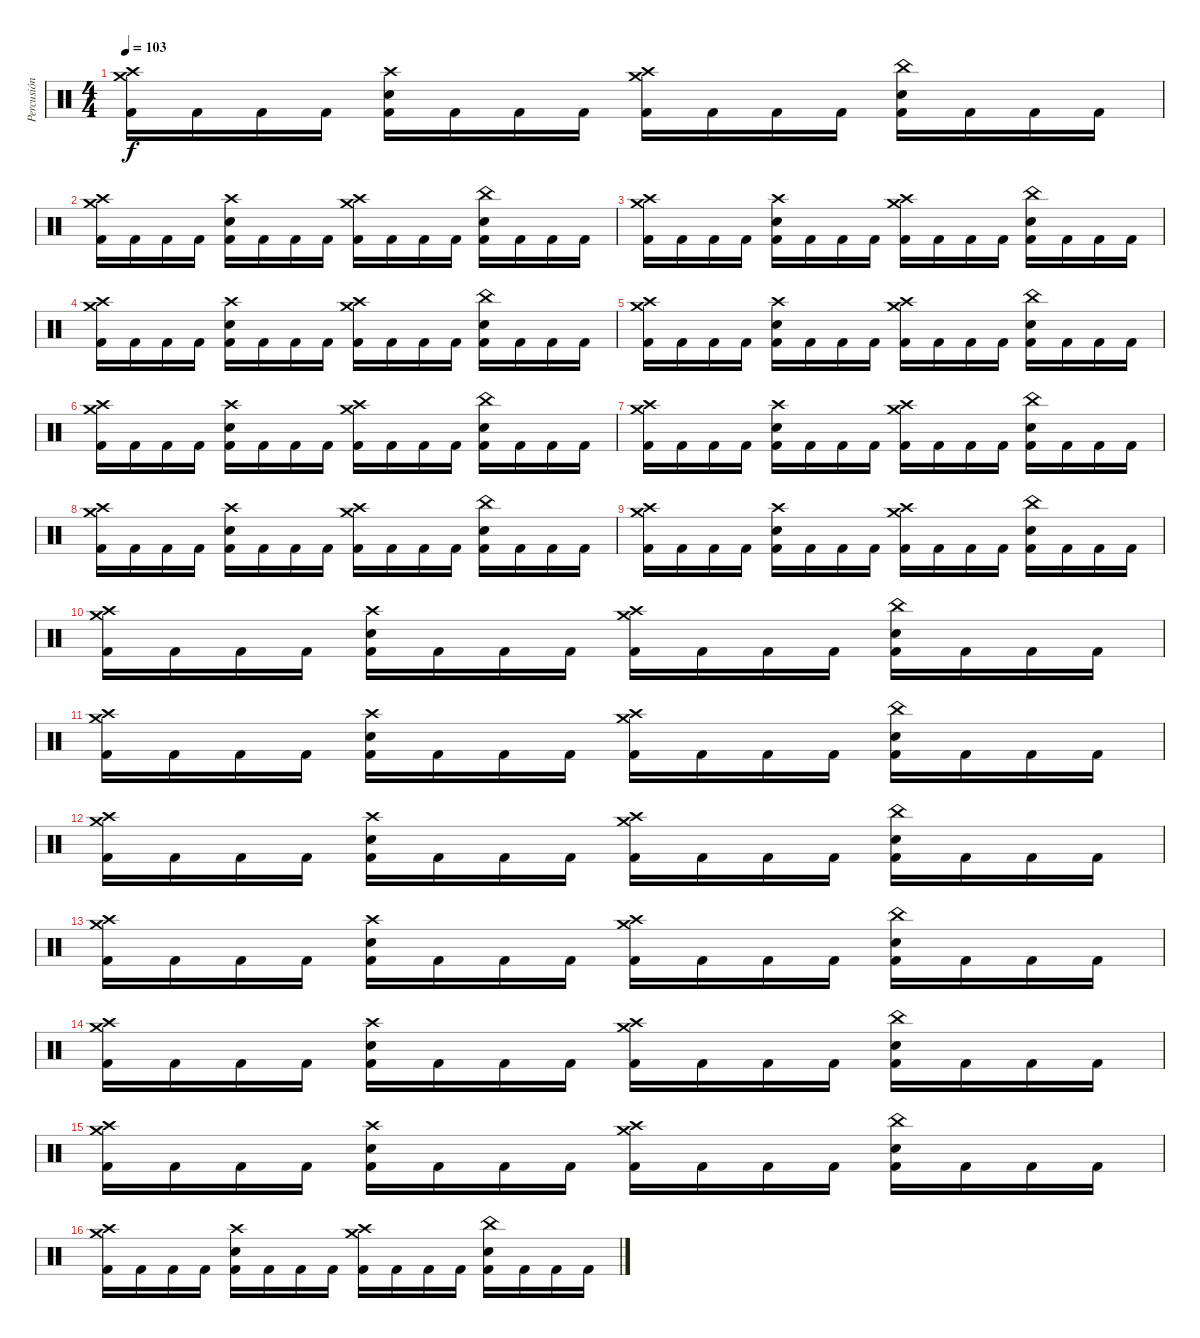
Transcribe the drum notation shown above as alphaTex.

\track ("Percusión" "Percusión") {instrument percussion}
\staff {score}
\articulation defaults
\ts (4 4)
\tempo 103
\clef neutral
\ks c
("Crash high (hit)" "Crash medium (hit)" "Kick (hit) 2").16{dy f} "Kick (hit) 2".16 "Kick (hit) 2".16 "Kick (hit) 2".16 ("Snare (hit) 2" "Crash high (hit)" "Kick (hit) 2").16 "Kick (hit) 2".16 "Kick (hit) 2".16 "Kick (hit) 2".16 ("Crash high (hit)" "Crash medium (hit)" "Kick (hit) 2").16 "Kick (hit) 2".16 "Kick (hit) 2".16 "Kick (hit) 2".16 ("Snare (hit) 2" "China (hit)" "Kick (hit) 2").16 "Kick (hit) 2".16 "Kick (hit) 2".16 "Kick (hit) 2".16 |
("Crash high (hit)" "Crash medium (hit)" "Kick (hit) 2").16 "Kick (hit) 2".16 "Kick (hit) 2".16 "Kick (hit) 2".16 ("Snare (hit) 2" "Crash high (hit)" "Kick (hit) 2").16 "Kick (hit) 2".16 "Kick (hit) 2".16 "Kick (hit) 2".16 ("Crash high (hit)" "Crash medium (hit)" "Kick (hit) 2").16 "Kick (hit) 2".16 "Kick (hit) 2".16 "Kick (hit) 2".16 ("Snare (hit) 2" "China (hit)" "Kick (hit) 2").16 "Kick (hit) 2".16 "Kick (hit) 2".16 "Kick (hit) 2".16 |
("Crash high (hit)" "Crash medium (hit)" "Kick (hit) 2").16 "Kick (hit) 2".16 "Kick (hit) 2".16 "Kick (hit) 2".16 ("Snare (hit) 2" "Crash high (hit)" "Kick (hit) 2").16 "Kick (hit) 2".16 "Kick (hit) 2".16 "Kick (hit) 2".16 ("Crash high (hit)" "Crash medium (hit)" "Kick (hit) 2").16 "Kick (hit) 2".16 "Kick (hit) 2".16 "Kick (hit) 2".16 ("Snare (hit) 2" "China (hit)" "Kick (hit) 2").16 "Kick (hit) 2".16 "Kick (hit) 2".16 "Kick (hit) 2".16 |
("Crash high (hit)" "Crash medium (hit)" "Kick (hit) 2").16{volume 10} "Kick (hit) 2".16 "Kick (hit) 2".16 "Kick (hit) 2".16 ("Snare (hit) 2" "Crash high (hit)" "Kick (hit) 2").16 "Kick (hit) 2".16 "Kick (hit) 2".16 "Kick (hit) 2".16 ("Crash high (hit)" "Crash medium (hit)" "Kick (hit) 2").16 "Kick (hit) 2".16 "Kick (hit) 2".16 "Kick (hit) 2".16 ("Snare (hit) 2" "China (hit)" "Kick (hit) 2").16 "Kick (hit) 2".16 "Kick (hit) 2".16 "Kick (hit) 2".16 |
("Crash high (hit)" "Crash medium (hit)" "Kick (hit) 2").16 "Kick (hit) 2".16 "Kick (hit) 2".16 "Kick (hit) 2".16 ("Snare (hit) 2" "Crash high (hit)" "Kick (hit) 2").16 "Kick (hit) 2".16 "Kick (hit) 2".16 "Kick (hit) 2".16 ("Crash high (hit)" "Crash medium (hit)" "Kick (hit) 2").16 "Kick (hit) 2".16 "Kick (hit) 2".16 "Kick (hit) 2".16 ("Snare (hit) 2" "China (hit)" "Kick (hit) 2").16 "Kick (hit) 2".16 "Kick (hit) 2".16 "Kick (hit) 2".16 |
("Crash high (hit)" "Crash medium (hit)" "Kick (hit) 2").16 "Kick (hit) 2".16 "Kick (hit) 2".16 "Kick (hit) 2".16 ("Snare (hit) 2" "Crash high (hit)" "Kick (hit) 2").16 "Kick (hit) 2".16 "Kick (hit) 2".16 "Kick (hit) 2".16 ("Crash high (hit)" "Crash medium (hit)" "Kick (hit) 2").16 "Kick (hit) 2".16 "Kick (hit) 2".16 "Kick (hit) 2".16 ("Snare (hit) 2" "China (hit)" "Kick (hit) 2").16 "Kick (hit) 2".16 "Kick (hit) 2".16 "Kick (hit) 2".16 |
("Crash high (hit)" "Crash medium (hit)" "Kick (hit) 2").16 "Kick (hit) 2".16 "Kick (hit) 2".16 "Kick (hit) 2".16 ("Snare (hit) 2" "Crash high (hit)" "Kick (hit) 2").16 "Kick (hit) 2".16 "Kick (hit) 2".16 "Kick (hit) 2".16 ("Crash high (hit)" "Crash medium (hit)" "Kick (hit) 2").16 "Kick (hit) 2".16 "Kick (hit) 2".16 "Kick (hit) 2".16 ("Snare (hit) 2" "China (hit)" "Kick (hit) 2").16 "Kick (hit) 2".16 "Kick (hit) 2".16 "Kick (hit) 2".16 |
("Crash high (hit)" "Crash medium (hit)" "Kick (hit) 2").16{volume 8} "Kick (hit) 2".16 "Kick (hit) 2".16 "Kick (hit) 2".16 ("Snare (hit) 2" "Crash high (hit)" "Kick (hit) 2").16 "Kick (hit) 2".16 "Kick (hit) 2".16 "Kick (hit) 2".16 ("Crash high (hit)" "Crash medium (hit)" "Kick (hit) 2").16 "Kick (hit) 2".16 "Kick (hit) 2".16 "Kick (hit) 2".16 ("Snare (hit) 2" "China (hit)" "Kick (hit) 2").16 "Kick (hit) 2".16 "Kick (hit) 2".16 "Kick (hit) 2".16 |
("Crash high (hit)" "Crash medium (hit)" "Kick (hit) 2").16 "Kick (hit) 2".16 "Kick (hit) 2".16 "Kick (hit) 2".16 ("Snare (hit) 2" "Crash high (hit)" "Kick (hit) 2").16 "Kick (hit) 2".16 "Kick (hit) 2".16 "Kick (hit) 2".16 ("Crash high (hit)" "Crash medium (hit)" "Kick (hit) 2").16 "Kick (hit) 2".16 "Kick (hit) 2".16 "Kick (hit) 2".16 ("Snare (hit) 2" "China (hit)" "Kick (hit) 2").16 "Kick (hit) 2".16 "Kick (hit) 2".16 "Kick (hit) 2".16 |
("Crash high (hit)" "Crash medium (hit)" "Kick (hit) 2").16 "Kick (hit) 2".16 "Kick (hit) 2".16 "Kick (hit) 2".16 ("Snare (hit) 2" "Crash high (hit)" "Kick (hit) 2").16 "Kick (hit) 2".16 "Kick (hit) 2".16 "Kick (hit) 2".16 ("Crash high (hit)" "Crash medium (hit)" "Kick (hit) 2").16 "Kick (hit) 2".16 "Kick (hit) 2".16 "Kick (hit) 2".16 ("Snare (hit) 2" "China (hit)" "Kick (hit) 2").16 "Kick (hit) 2".16 "Kick (hit) 2".16 "Kick (hit) 2".16 |
("Crash high (hit)" "Crash medium (hit)" "Kick (hit) 2").16 "Kick (hit) 2".16 "Kick (hit) 2".16 "Kick (hit) 2".16 ("Snare (hit) 2" "Crash high (hit)" "Kick (hit) 2").16 "Kick (hit) 2".16 "Kick (hit) 2".16 "Kick (hit) 2".16 ("Crash high (hit)" "Crash medium (hit)" "Kick (hit) 2").16 "Kick (hit) 2".16 "Kick (hit) 2".16 "Kick (hit) 2".16 ("Snare (hit) 2" "China (hit)" "Kick (hit) 2").16 "Kick (hit) 2".16 "Kick (hit) 2".16 "Kick (hit) 2".16 |
("Crash high (hit)" "Crash medium (hit)" "Kick (hit) 2").16{volume 6} "Kick (hit) 2".16 "Kick (hit) 2".16 "Kick (hit) 2".16 ("Snare (hit) 2" "Crash high (hit)" "Kick (hit) 2").16 "Kick (hit) 2".16 "Kick (hit) 2".16 "Kick (hit) 2".16 ("Crash high (hit)" "Crash medium (hit)" "Kick (hit) 2").16 "Kick (hit) 2".16 "Kick (hit) 2".16 "Kick (hit) 2".16 ("Snare (hit) 2" "China (hit)" "Kick (hit) 2").16 "Kick (hit) 2".16 "Kick (hit) 2".16 "Kick (hit) 2".16 |
("Crash high (hit)" "Crash medium (hit)" "Kick (hit) 2").16 "Kick (hit) 2".16 "Kick (hit) 2".16 "Kick (hit) 2".16 ("Snare (hit) 2" "Crash high (hit)" "Kick (hit) 2").16 "Kick (hit) 2".16 "Kick (hit) 2".16 "Kick (hit) 2".16 ("Crash high (hit)" "Crash medium (hit)" "Kick (hit) 2").16 "Kick (hit) 2".16 "Kick (hit) 2".16 "Kick (hit) 2".16 ("Snare (hit) 2" "China (hit)" "Kick (hit) 2").16 "Kick (hit) 2".16 "Kick (hit) 2".16 "Kick (hit) 2".16 |
("Crash high (hit)" "Crash medium (hit)" "Kick (hit) 2").16 "Kick (hit) 2".16 "Kick (hit) 2".16 "Kick (hit) 2".16 ("Snare (hit) 2" "Crash high (hit)" "Kick (hit) 2").16 "Kick (hit) 2".16 "Kick (hit) 2".16 "Kick (hit) 2".16 ("Crash high (hit)" "Crash medium (hit)" "Kick (hit) 2").16 "Kick (hit) 2".16 "Kick (hit) 2".16 "Kick (hit) 2".16 ("Snare (hit) 2" "China (hit)" "Kick (hit) 2").16 "Kick (hit) 2".16 "Kick (hit) 2".16 "Kick (hit) 2".16 |
("Crash high (hit)" "Crash medium (hit)" "Kick (hit) 2").16 "Kick (hit) 2".16 "Kick (hit) 2".16 "Kick (hit) 2".16 ("Snare (hit) 2" "Crash high (hit)" "Kick (hit) 2").16 "Kick (hit) 2".16 "Kick (hit) 2".16 "Kick (hit) 2".16 ("Crash high (hit)" "Crash medium (hit)" "Kick (hit) 2").16 "Kick (hit) 2".16 "Kick (hit) 2".16 "Kick (hit) 2".16 ("Snare (hit) 2" "China (hit)" "Kick (hit) 2").16 "Kick (hit) 2".16 "Kick (hit) 2".16 "Kick (hit) 2".16 |
("Crash high (hit)" "Crash medium (hit)" "Kick (hit) 2").16{volume 4} "Kick (hit) 2".16 "Kick (hit) 2".16 "Kick (hit) 2".16 ("Snare (hit) 2" "Crash high (hit)" "Kick (hit) 2").16 "Kick (hit) 2".16 "Kick (hit) 2".16 "Kick (hit) 2".16 ("Crash high (hit)" "Crash medium (hit)" "Kick (hit) 2").16 "Kick (hit) 2".16 "Kick (hit) 2".16 "Kick (hit) 2".16 ("Snare (hit) 2" "China (hit)" "Kick (hit) 2").16 "Kick (hit) 2".16 "Kick (hit) 2".16 "Kick (hit) 2".16
